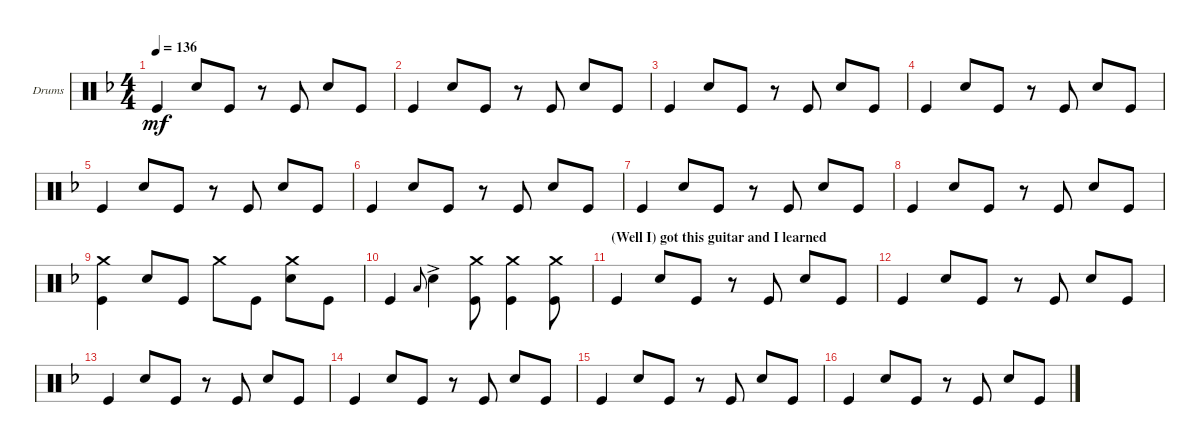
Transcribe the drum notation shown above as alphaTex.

\bracketExtendMode groupsimilarinstruments
\firstSystemTrackNameOrientation horizontal
\otherSystemsTrackNameOrientation horizontal
\track ("Drumkit" "Drums") {instrument percussion}
\staff {score}
\articulation defaults
\ts (4 4)
\tempo 136
\clef neutral
\scale
0.333333
\ks f "Kick (hit)".4{dy mf} "Snare (hit) 2".8 "Kick (hit)".8
r.8 "Kick (hit)".8 "Snare (hit) 2".8 "Kick (hit)".8 |
\scale
0.333333 "Kick (hit)".4 "Snare (hit) 2".8 "Kick (hit)".8 r.8 "Kick (hit)".8 "Snare (hit) 2".8 "Kick (hit)".8 |
\scale
0.333333 "Kick (hit)".4 "Snare (hit) 2".8 "Kick (hit)".8 r.8 "Kick (hit)".8 "Snare (hit) 2".8 "Kick (hit)".8 |
\scale
0.333333 "Kick (hit)".4 "Snare (hit) 2".8 "Kick (hit)".8 r.8 "Kick (hit)".8 "Snare (hit) 2".8 "Kick (hit)".8 |
\scale
0.333333 "Kick (hit)".4 "Snare (hit) 2".8 "Kick (hit)".8 r.8 "Kick (hit)".8 "Snare (hit) 2".8 "Kick (hit)".8 |
\scale
0.333333 "Kick (hit)".4 "Snare (hit) 2".8 "Kick (hit)".8 r.8 "Kick (hit)".8 "Snare (hit) 2".8 "Kick (hit)".8 |
\scale
0.333333 "Kick (hit)".4 "Snare (hit) 2".8 "Kick (hit)".8 r.8 "Kick (hit)".8 "Snare (hit) 2".8 "Kick (hit)".8 |
\scale
0.333333 "Kick (hit)".4 "Snare (hit) 2".8 "Kick (hit)".8 r.8 "Kick (hit)".8 "Snare (hit) 2".8 "Kick (hit)".8 |
\scale
0.333333 ("Kick (hit)" "Crash medium (hit)").4 "Snare (hit) 2".8 "Kick (hit)".8 "Crash medium (hit)".8 "Kick (hit)".8 ("Snare (hit) 2" "Crash medium (hit)").8 "Kick (hit)".8 |
\scale
0.333333 "Kick (hit)".4 "Low Tom (hit)".8{gr onbeat} "Snare (hit) 2"{ac}.4 ("Kick (hit)" "Crash medium (hit)").8 ("Kick (hit)" "Crash medium (hit)").4 ("Kick (hit)" "Crash medium (hit)").8 |
\section ("" "(Well I) got this guitar and I learned")
\scale
0.333333 "Kick (hit)".4 "Snare (hit) 2".8 "Kick (hit)".8 r.8 "Kick (hit)".8 "Snare (hit) 2".8 "Kick (hit)".8 |
\scale
0.333333 "Kick (hit)".4 "Snare (hit) 2".8 "Kick (hit)".8 r.8 "Kick (hit)".8 "Snare (hit) 2".8 "Kick (hit)".8 |
\scale
0.333333 "Kick (hit)".4 "Snare (hit) 2".8 "Kick (hit)".8 r.8 "Kick (hit)".8 "Snare (hit) 2".8 "Kick (hit)".8 |
\scale
0.333333 "Kick (hit)".4 "Snare (hit) 2".8 "Kick (hit)".8 r.8 "Kick (hit)".8 "Snare (hit) 2".8 "Kick (hit)".8 |
\scale
0.333333 "Kick (hit)".4 "Snare (hit) 2".8 "Kick (hit)".8 r.8 "Kick (hit)".8 "Snare (hit) 2".8 "Kick (hit)".8 |
\scale
0.333333 "Kick (hit)".4 "Snare (hit) 2".8 "Kick (hit)".8 r.8 "Kick (hit)".8 "Snare (hit) 2".8 "Kick (hit)".8
